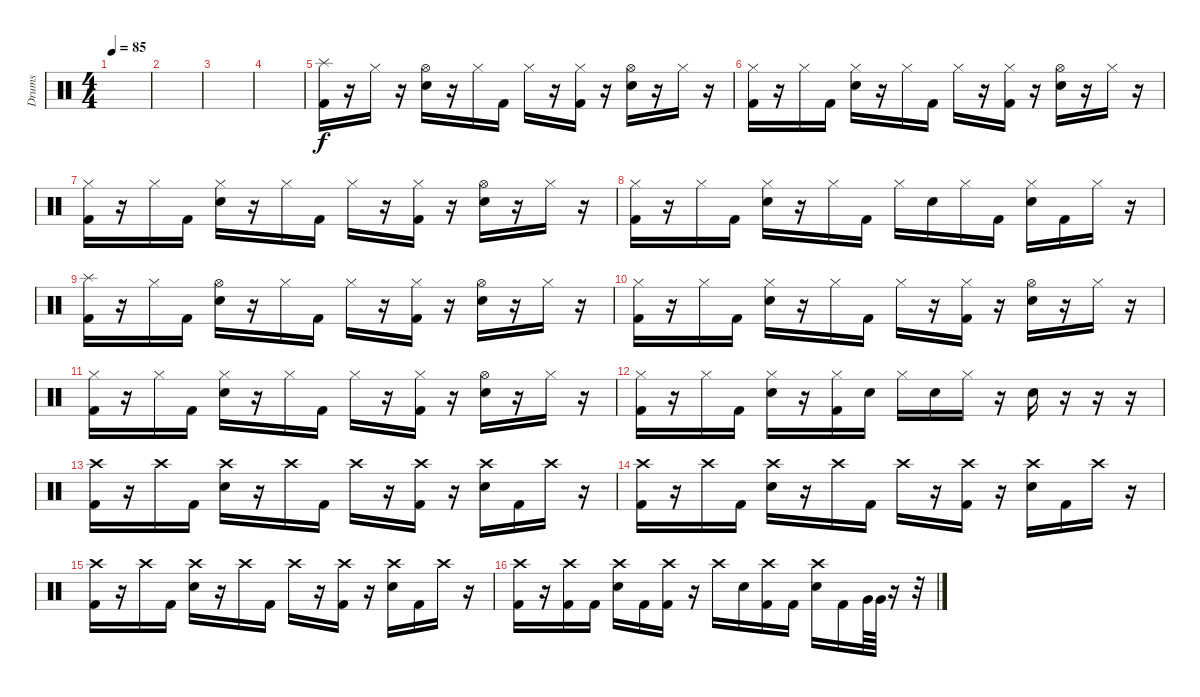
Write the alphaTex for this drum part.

\track ("Drums" "Drums") {instrument percussion}
\staff {score}
\articulation defaults
\ts (4 4)
\tempo 85
\clef neutral
\ks c
|
|
|
|
("Splash (hit)" "Kick (hit) 2").16 r.16 "Hi-Hat (closed)".16 r.16 ("Hi-Hat (open)" "Electric Snare (hit)").16 r.16 "Hi-Hat (closed)".16 "Kick (hit) 2".16 "Hi-Hat (closed)".16 r.16 ("Hi-Hat (closed)" "Kick (hit) 2").16 r.16 ("Hi-Hat (open)" "Electric Snare (hit)").16 r.16 "Hi-Hat (closed)".16 r.16 |
("Hi-Hat (closed)" "Kick (hit) 2").16 r.16 "Hi-Hat (closed)".16 "Kick (hit) 2".16 ("Hi-Hat (closed)" "Electric Snare (hit)").16 r.16 "Hi-Hat (closed)".16 "Kick (hit) 2".16 "Hi-Hat (closed)".16 r.16 ("Hi-Hat (closed)" "Kick (hit) 2").16 r.16 ("Hi-Hat (open)" "Electric Snare (hit)").16 r.16 "Hi-Hat (closed)".16 r.16 |
("Hi-Hat (closed)" "Kick (hit) 2").16 r.16 "Hi-Hat (closed)".16 "Kick (hit) 2".16 ("Hi-Hat (closed)" "Electric Snare (hit)").16 r.16 "Hi-Hat (closed)".16 "Kick (hit) 2".16 "Hi-Hat (closed)".16 r.16 ("Hi-Hat (closed)" "Kick (hit) 2").16 r.16 ("Hi-Hat (open)" "Electric Snare (hit)").16 r.16 "Hi-Hat (closed)".16 r.16 |
("Hi-Hat (closed)" "Kick (hit) 2").16 r.16 "Hi-Hat (closed)".16 "Kick (hit) 2".16 ("Hi-Hat (closed)" "Electric Snare (hit)").16 r.16 "Hi-Hat (closed)".16 "Kick (hit) 2".16 "Hi-Hat (closed)".16 "Electric Snare (hit)".16 "Hi-Hat (closed)".16 "Kick (hit) 2".16 ("Hi-Hat (closed)" "Electric Snare (hit)").16 "Kick (hit) 2".16 "Hi-Hat (closed)".16 r.16 |
("Splash (hit)" "Kick (hit) 2").16 r.16 "Hi-Hat (closed)".16 "Kick (hit) 2".16 ("Hi-Hat (open)" "Electric Snare (hit)").16 r.16 "Hi-Hat (closed)".16 "Kick (hit) 2".16 "Hi-Hat (closed)".16 r.16 ("Hi-Hat (closed)" "Kick (hit) 2").16 r.16 ("Hi-Hat (open)" "Electric Snare (hit)").16 r.16 "Hi-Hat (closed)".16 r.16 |
("Hi-Hat (closed)" "Kick (hit) 2").16 r.16 "Hi-Hat (closed)".16 "Kick (hit) 2".16 ("Hi-Hat (closed)" "Electric Snare (hit)").16 r.16 "Hi-Hat (closed)".16 "Kick (hit) 2".16 "Hi-Hat (closed)".16 r.16 ("Hi-Hat (closed)" "Kick (hit) 2").16 r.16 ("Hi-Hat (open)" "Electric Snare (hit)").16 r.16 "Hi-Hat (closed)".16 r.16 |
("Hi-Hat (closed)" "Kick (hit) 2").16 r.16 "Hi-Hat (closed)".16 "Kick (hit) 2".16 ("Hi-Hat (closed)" "Electric Snare (hit)").16 r.16 "Hi-Hat (closed)".16 "Kick (hit) 2".16 "Hi-Hat (closed)".16 r.16 ("Hi-Hat (closed)" "Kick (hit) 2").16 r.16 ("Hi-Hat (open)" "Electric Snare (hit)").16 r.16 "Hi-Hat (closed)".16 r.16 |
("Hi-Hat (closed)" "Kick (hit) 2").16 r.16 "Hi-Hat (closed)".16 "Kick (hit) 2".16 ("Hi-Hat (closed)" "Electric Snare (hit)").16 r.16 ("Hi-Hat (closed)" "Kick (hit) 2").16 "Electric Snare (hit)".16 "Hi-Hat (closed)".16 "Electric Snare (hit)".16 "Hi-Hat (closed)".16 r.16 "Electric Snare (hit)".16 r.16 r.16 r.16 |
("Crash high (hit)" "Kick (hit) 2").16 r.16 "Crash high (hit)".16 "Kick (hit) 2".16 ("Crash high (hit)" "Electric Snare (hit)").16 r.16 "Crash high (hit)".16 "Kick (hit) 2".16 "Crash high (hit)".16 r.16 ("Crash high (hit)" "Kick (hit) 2").16 r.16 ("Crash high (hit)" "Electric Snare (hit)").16 "Kick (hit) 2".16 "Crash high (hit)".16 r.16 |
("Crash high (hit)" "Kick (hit) 2").16 r.16 "Crash high (hit)".16 "Kick (hit) 2".16 ("Crash high (hit)" "Electric Snare (hit)").16 r.16 "Crash high (hit)".16 "Kick (hit) 2".16 "Crash high (hit)".16 r.16 ("Crash high (hit)" "Kick (hit) 2").16 r.16 ("Crash high (hit)" "Electric Snare (hit)").16 "Kick (hit) 2".16 "Crash high (hit)".16 r.16 |
("Crash high (hit)" "Kick (hit) 2").16 r.16 "Crash high (hit)".16 "Kick (hit) 2".16 ("Crash high (hit)" "Electric Snare (hit)").16 r.16 "Crash high (hit)".16 "Kick (hit) 2".16 "Crash high (hit)".16 r.16 ("Crash high (hit)" "Kick (hit) 2").16 r.16 ("Crash high (hit)" "Electric Snare (hit)").16 "Kick (hit) 2".16 "Crash high (hit)".16 r.16 |
("Crash high (hit)" "Kick (hit) 2").16 r.16 ("Crash high (hit)" "Kick (hit) 2").16 "Kick (hit) 2".16 ("Crash high (hit)" "Electric Snare (hit)").16 "Kick (hit) 2".16 ("Crash high (hit)" "Kick (hit) 2").16 r.16 "Crash high (hit)".16 "Electric Snare (hit)".16 ("Crash high (hit)" "Kick (hit) 2").16 "Kick (hit) 2".16 ("Crash high (hit)" "Electric Snare (hit)").16 "Kick (hit) 2".16 "Very Low Tom (hit)".64 "Very Low Tom (hit)".64 r.16 r.32
